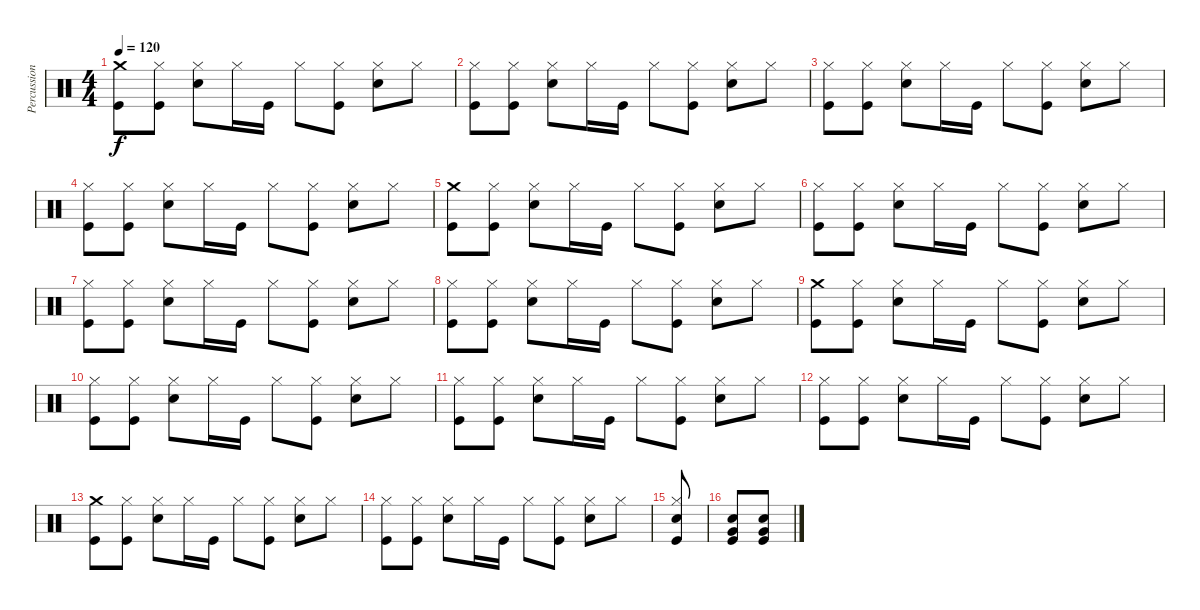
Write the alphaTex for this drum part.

\track ("Percussion" "Percussion") {instrument percussion}
\staff {score}
\articulation defaults
\ts (4 4)
\tempo 120
\clef neutral
\ks c
("Crash medium (hit)" "Kick (hit)").8{dy f} ("Hi-Hat (closed)" "Kick (hit)").8 ("Hi-Hat (closed)" "Electric Snare (hit)").8 "Hi-Hat (closed)".16 "Kick (hit)".16 "Hi-Hat (closed)".8 ("Hi-Hat (closed)" "Kick (hit)").8 ("Hi-Hat (closed)" "Electric Snare (hit)").8 "Hi-Hat (closed)".8 |
("Hi-Hat (closed)" "Kick (hit)").8 ("Hi-Hat (closed)" "Kick (hit)").8 ("Hi-Hat (closed)" "Electric Snare (hit)").8 "Hi-Hat (closed)".16 "Kick (hit)".16 "Hi-Hat (closed)".8 ("Hi-Hat (closed)" "Kick (hit)").8 ("Hi-Hat (closed)" "Electric Snare (hit)").8 "Hi-Hat (closed)".8 |
("Hi-Hat (closed)" "Kick (hit)").8 ("Hi-Hat (closed)" "Kick (hit)").8 ("Hi-Hat (closed)" "Electric Snare (hit)").8 "Hi-Hat (closed)".16 "Kick (hit)".16 "Hi-Hat (closed)".8 ("Hi-Hat (closed)" "Kick (hit)").8 ("Hi-Hat (closed)" "Electric Snare (hit)").8 "Hi-Hat (closed)".8 |
("Hi-Hat (closed)" "Kick (hit)").8 ("Hi-Hat (closed)" "Kick (hit)").8 ("Hi-Hat (closed)" "Electric Snare (hit)").8 "Hi-Hat (closed)".16 "Kick (hit)".16 "Hi-Hat (closed)".8 ("Hi-Hat (closed)" "Kick (hit)").8 ("Hi-Hat (closed)" "Electric Snare (hit)").8 "Hi-Hat (closed)".8 |
("Crash medium (hit)" "Kick (hit)").8 ("Hi-Hat (closed)" "Kick (hit)").8 ("Hi-Hat (closed)" "Electric Snare (hit)").8 "Hi-Hat (closed)".16 "Kick (hit)".16 "Hi-Hat (closed)".8 ("Hi-Hat (closed)" "Kick (hit)").8 ("Hi-Hat (closed)" "Electric Snare (hit)").8 "Hi-Hat (closed)".8 |
("Hi-Hat (closed)" "Kick (hit)").8 ("Hi-Hat (closed)" "Kick (hit)").8 ("Hi-Hat (closed)" "Electric Snare (hit)").8 "Hi-Hat (closed)".16 "Kick (hit)".16 "Hi-Hat (closed)".8 ("Hi-Hat (closed)" "Kick (hit)").8 ("Hi-Hat (closed)" "Electric Snare (hit)").8 "Hi-Hat (closed)".8 |
("Hi-Hat (closed)" "Kick (hit)").8 ("Hi-Hat (closed)" "Kick (hit)").8 ("Hi-Hat (closed)" "Electric Snare (hit)").8 "Hi-Hat (closed)".16 "Kick (hit)".16 "Hi-Hat (closed)".8 ("Hi-Hat (closed)" "Kick (hit)").8 ("Hi-Hat (closed)" "Electric Snare (hit)").8 "Hi-Hat (closed)".8 |
("Hi-Hat (closed)" "Kick (hit)").8 ("Hi-Hat (closed)" "Kick (hit)").8 ("Hi-Hat (closed)" "Electric Snare (hit)").8 "Hi-Hat (closed)".16 "Kick (hit)".16 "Hi-Hat (closed)".8 ("Hi-Hat (closed)" "Kick (hit)").8 ("Hi-Hat (closed)" "Electric Snare (hit)").8 "Hi-Hat (closed)".8 |
("Crash medium (hit)" "Kick (hit)").8 ("Hi-Hat (closed)" "Kick (hit)").8 ("Hi-Hat (closed)" "Electric Snare (hit)").8 "Hi-Hat (closed)".16 "Kick (hit)".16 "Hi-Hat (closed)".8 ("Hi-Hat (closed)" "Kick (hit)").8 ("Hi-Hat (closed)" "Electric Snare (hit)").8 "Hi-Hat (closed)".8 |
("Hi-Hat (closed)" "Kick (hit)").8 ("Hi-Hat (closed)" "Kick (hit)").8 ("Hi-Hat (closed)" "Electric Snare (hit)").8 "Hi-Hat (closed)".16 "Kick (hit)".16 "Hi-Hat (closed)".8 ("Hi-Hat (closed)" "Kick (hit)").8 ("Hi-Hat (closed)" "Electric Snare (hit)").8 "Hi-Hat (closed)".8 |
("Hi-Hat (closed)" "Kick (hit)").8 ("Hi-Hat (closed)" "Kick (hit)").8 ("Hi-Hat (closed)" "Electric Snare (hit)").8 "Hi-Hat (closed)".16 "Kick (hit)".16 "Hi-Hat (closed)".8 ("Hi-Hat (closed)" "Kick (hit)").8 ("Hi-Hat (closed)" "Electric Snare (hit)").8 "Hi-Hat (closed)".8 |
("Hi-Hat (closed)" "Kick (hit)").8 ("Hi-Hat (closed)" "Kick (hit)").8 ("Hi-Hat (closed)" "Electric Snare (hit)").8 "Hi-Hat (closed)".16 "Kick (hit)".16 "Hi-Hat (closed)".8 ("Hi-Hat (closed)" "Kick (hit)").8 ("Hi-Hat (closed)" "Electric Snare (hit)").8 "Hi-Hat (closed)".8 |
("Crash medium (hit)" "Kick (hit)").8 ("Hi-Hat (closed)" "Kick (hit)").8 ("Hi-Hat (closed)" "Electric Snare (hit)").8 "Hi-Hat (closed)".16 "Kick (hit)".16 "Hi-Hat (closed)".8 ("Hi-Hat (closed)" "Kick (hit)").8 ("Hi-Hat (closed)" "Electric Snare (hit)").8 "Hi-Hat (closed)".8 |
("Hi-Hat (closed)" "Kick (hit)").8 ("Hi-Hat (closed)" "Kick (hit)").8 ("Hi-Hat (closed)" "Electric Snare (hit)").8 "Hi-Hat (closed)".16 "Kick (hit)".16 "Hi-Hat (closed)".8 ("Hi-Hat (closed)" "Kick (hit)").8 ("Hi-Hat (closed)" "Electric Snare (hit)").8 "Hi-Hat (closed)".8 |
("Hi-Hat (closed)" "Electric Snare (hit)" "Kick (hit)").8 |
("Electric Snare (hit)" "Very Low Tom (hit)" "Kick (hit)").8 ("Electric Snare (hit)" "Very Low Tom (hit)" "Kick (hit)").8
